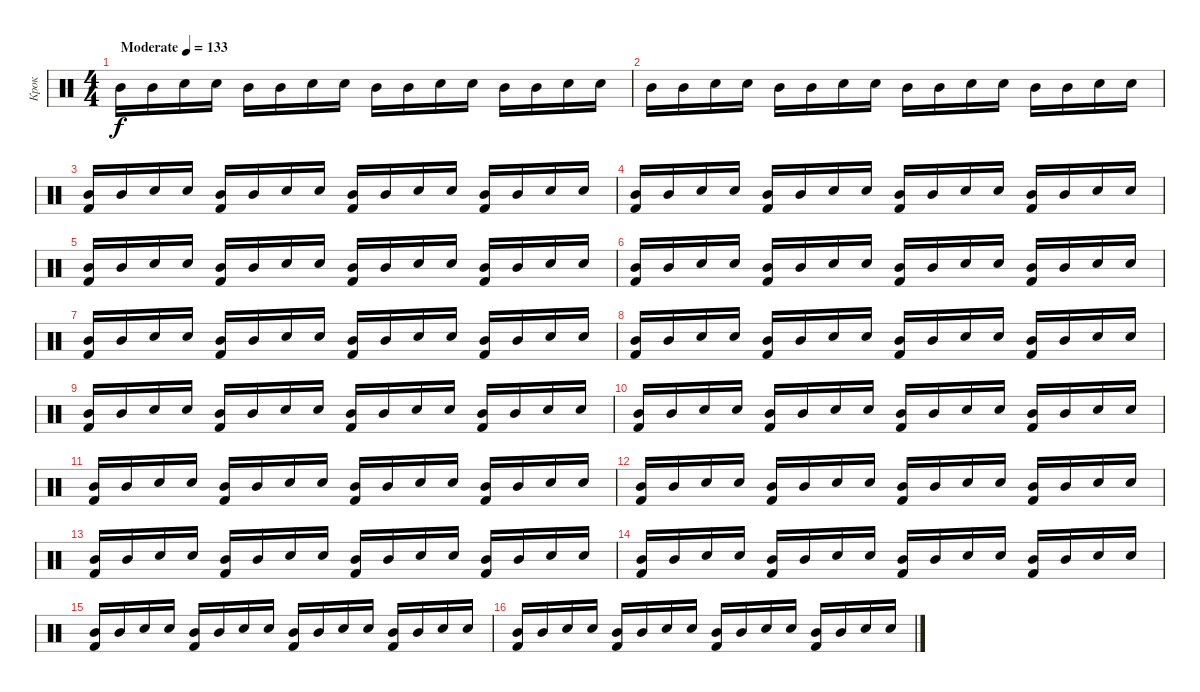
\track ("Крок" "Крок") {instrument percussion}
\staff {score}
\articulation defaults
\ts (4 4)
\tempo (133 "Moderate")
\clef neutral
\ks c "Mid Tom (hit)".16{dy f} "Mid Tom (hit)".16 "Electric Snare (hit)".16 "Electric Snare (hit)".16 "Mid Tom (hit)".16 "Mid Tom (hit)".16 "Electric Snare (hit)".16 "Electric Snare (hit)".16 "Mid Tom (hit)".16 "Mid Tom (hit)".16 "Electric Snare (hit)".16 "Electric Snare (hit)".16 "Mid Tom (hit)".16 "Mid Tom (hit)".16 "Electric Snare (hit)".16 "Electric Snare (hit)".16
|
"Mid Tom (hit)".16 "Mid Tom (hit)".16 "Electric Snare (hit)".16 "Electric Snare (hit)".16 "Mid Tom (hit)".16 "Mid Tom (hit)".16 "Electric Snare (hit)".16 "Electric Snare (hit)".16 "Mid Tom (hit)".16 "Mid Tom (hit)".16 "Electric Snare (hit)".16 "Electric Snare (hit)".16 "Mid Tom (hit)".16 "Mid Tom (hit)".16 "Electric Snare (hit)".16 "Electric Snare (hit)".16 |
("Kick (hit) 2" "Mid Tom (hit)").16 "Mid Tom (hit)".16 "Electric Snare (hit)".16 "Electric Snare (hit)".16 ("Kick (hit) 2" "Mid Tom (hit)").16 "Mid Tom (hit)".16 "Electric Snare (hit)".16 "Electric Snare (hit)".16 ("Kick (hit) 2" "Mid Tom (hit)").16 "Mid Tom (hit)".16 "Electric Snare (hit)".16 "Electric Snare (hit)".16 ("Kick (hit) 2" "Mid Tom (hit)").16 "Mid Tom (hit)".16 "Electric Snare (hit)".16 "Electric Snare (hit)".16 |
("Kick (hit) 2" "Mid Tom (hit)").16 "Mid Tom (hit)".16 "Electric Snare (hit)".16 "Electric Snare (hit)".16 ("Kick (hit) 2" "Mid Tom (hit)").16 "Mid Tom (hit)".16 "Electric Snare (hit)".16 "Electric Snare (hit)".16 ("Kick (hit) 2" "Mid Tom (hit)").16 "Mid Tom (hit)".16 "Electric Snare (hit)".16 "Electric Snare (hit)".16 ("Kick (hit) 2" "Mid Tom (hit)").16 "Mid Tom (hit)".16 "Electric Snare (hit)".16 "Electric Snare (hit)".16 |
("Kick (hit) 2" "Mid Tom (hit)").16 "Mid Tom (hit)".16 "Electric Snare (hit)".16 "Electric Snare (hit)".16 ("Kick (hit) 2" "Mid Tom (hit)").16 "Mid Tom (hit)".16 "Electric Snare (hit)".16 "Electric Snare (hit)".16 ("Kick (hit) 2" "Mid Tom (hit)").16 "Mid Tom (hit)".16 "Electric Snare (hit)".16 "Electric Snare (hit)".16 ("Kick (hit) 2" "Mid Tom (hit)").16 "Mid Tom (hit)".16 "Electric Snare (hit)".16 "Electric Snare (hit)".16 |
("Kick (hit) 2" "Mid Tom (hit)").16 "Mid Tom (hit)".16 "Electric Snare (hit)".16 "Electric Snare (hit)".16 ("Kick (hit) 2" "Mid Tom (hit)").16 "Mid Tom (hit)".16 "Electric Snare (hit)".16 "Electric Snare (hit)".16 ("Kick (hit) 2" "Mid Tom (hit)").16 "Mid Tom (hit)".16 "Electric Snare (hit)".16 "Electric Snare (hit)".16 ("Kick (hit) 2" "Mid Tom (hit)").16 "Mid Tom (hit)".16 "Electric Snare (hit)".16 "Electric Snare (hit)".16 |
("Kick (hit) 2" "Mid Tom (hit)").16 "Mid Tom (hit)".16 "Electric Snare (hit)".16 "Electric Snare (hit)".16 ("Kick (hit) 2" "Mid Tom (hit)").16 "Mid Tom (hit)".16 "Electric Snare (hit)".16 "Electric Snare (hit)".16 ("Kick (hit) 2" "Mid Tom (hit)").16 "Mid Tom (hit)".16 "Electric Snare (hit)".16 "Electric Snare (hit)".16 ("Kick (hit) 2" "Mid Tom (hit)").16 "Mid Tom (hit)".16 "Electric Snare (hit)".16 "Electric Snare (hit)".16 |
("Kick (hit) 2" "Mid Tom (hit)").16 "Mid Tom (hit)".16 "Electric Snare (hit)".16 "Electric Snare (hit)".16 ("Kick (hit) 2" "Mid Tom (hit)").16 "Mid Tom (hit)".16 "Electric Snare (hit)".16 "Electric Snare (hit)".16 ("Kick (hit) 2" "Mid Tom (hit)").16 "Mid Tom (hit)".16 "Electric Snare (hit)".16 "Electric Snare (hit)".16 ("Kick (hit) 2" "Mid Tom (hit)").16 "Mid Tom (hit)".16 "Electric Snare (hit)".16 "Electric Snare (hit)".16 |
("Kick (hit) 2" "Mid Tom (hit)").16 "Mid Tom (hit)".16 "Electric Snare (hit)".16 "Electric Snare (hit)".16 ("Kick (hit) 2" "Mid Tom (hit)").16 "Mid Tom (hit)".16 "Electric Snare (hit)".16 "Electric Snare (hit)".16 ("Kick (hit) 2" "Mid Tom (hit)").16 "Mid Tom (hit)".16 "Electric Snare (hit)".16 "Electric Snare (hit)".16 ("Kick (hit) 2" "Mid Tom (hit)").16 "Mid Tom (hit)".16 "Electric Snare (hit)".16 "Electric Snare (hit)".16 |
("Kick (hit) 2" "Mid Tom (hit)").16 "Mid Tom (hit)".16 "Electric Snare (hit)".16 "Electric Snare (hit)".16 ("Kick (hit) 2" "Mid Tom (hit)").16 "Mid Tom (hit)".16 "Electric Snare (hit)".16 "Electric Snare (hit)".16 ("Kick (hit) 2" "Mid Tom (hit)").16 "Mid Tom (hit)".16 "Electric Snare (hit)".16 "Electric Snare (hit)".16 ("Kick (hit) 2" "Mid Tom (hit)").16 "Mid Tom (hit)".16 "Electric Snare (hit)".16 "Electric Snare (hit)".16 |
("Kick (hit) 2" "Mid Tom (hit)").16 "Mid Tom (hit)".16 "Electric Snare (hit)".16 "Electric Snare (hit)".16 ("Kick (hit) 2" "Mid Tom (hit)").16 "Mid Tom (hit)".16 "Electric Snare (hit)".16 "Electric Snare (hit)".16 ("Kick (hit) 2" "Mid Tom (hit)").16 "Mid Tom (hit)".16 "Electric Snare (hit)".16 "Electric Snare (hit)".16 ("Kick (hit) 2" "Mid Tom (hit)").16 "Mid Tom (hit)".16 "Electric Snare (hit)".16 "Electric Snare (hit)".16 |
("Kick (hit) 2" "Mid Tom (hit)").16 "Mid Tom (hit)".16 "Electric Snare (hit)".16 "Electric Snare (hit)".16 ("Kick (hit) 2" "Mid Tom (hit)").16 "Mid Tom (hit)".16 "Electric Snare (hit)".16 "Electric Snare (hit)".16 ("Kick (hit) 2" "Mid Tom (hit)").16 "Mid Tom (hit)".16 "Electric Snare (hit)".16 "Electric Snare (hit)".16 ("Kick (hit) 2" "Mid Tom (hit)").16 "Mid Tom (hit)".16 "Electric Snare (hit)".16 "Electric Snare (hit)".16 |
("Kick (hit) 2" "Mid Tom (hit)").16 "Mid Tom (hit)".16 "Electric Snare (hit)".16 "Electric Snare (hit)".16 ("Kick (hit) 2" "Mid Tom (hit)").16 "Mid Tom (hit)".16 "Electric Snare (hit)".16 "Electric Snare (hit)".16 ("Kick (hit) 2" "Mid Tom (hit)").16 "Mid Tom (hit)".16 "Electric Snare (hit)".16 "Electric Snare (hit)".16 ("Kick (hit) 2" "Mid Tom (hit)").16 "Mid Tom (hit)".16 "Electric Snare (hit)".16 "Electric Snare (hit)".16 |
("Kick (hit) 2" "Mid Tom (hit)").16 "Mid Tom (hit)".16 "Electric Snare (hit)".16 "Electric Snare (hit)".16 ("Kick (hit) 2" "Mid Tom (hit)").16 "Mid Tom (hit)".16 "Electric Snare (hit)".16 "Electric Snare (hit)".16 ("Kick (hit) 2" "Mid Tom (hit)").16 "Mid Tom (hit)".16 "Electric Snare (hit)".16 "Electric Snare (hit)".16 ("Kick (hit) 2" "Mid Tom (hit)").16 "Mid Tom (hit)".16 "Electric Snare (hit)".16 "Electric Snare (hit)".16 |
("Kick (hit) 2" "Mid Tom (hit)").16 "Mid Tom (hit)".16 "Electric Snare (hit)".16 "Electric Snare (hit)".16 ("Kick (hit) 2" "Mid Tom (hit)").16 "Mid Tom (hit)".16 "Electric Snare (hit)".16 "Electric Snare (hit)".16 ("Kick (hit) 2" "Mid Tom (hit)").16 "Mid Tom (hit)".16 "Electric Snare (hit)".16 "Electric Snare (hit)".16 ("Kick (hit) 2" "Mid Tom (hit)").16 "Mid Tom (hit)".16 "Electric Snare (hit)".16 "Electric Snare (hit)".16 |
("Kick (hit) 2" "Mid Tom (hit)").16 "Mid Tom (hit)".16 "Electric Snare (hit)".16 "Electric Snare (hit)".16 ("Kick (hit) 2" "Mid Tom (hit)").16 "Mid Tom (hit)".16 "Electric Snare (hit)".16 "Electric Snare (hit)".16 ("Kick (hit) 2" "Mid Tom (hit)").16 "Mid Tom (hit)".16 "Electric Snare (hit)".16 "Electric Snare (hit)".16 ("Kick (hit) 2" "Mid Tom (hit)").16 "Mid Tom (hit)".16 "Electric Snare (hit)".16 "Electric Snare (hit)".16
